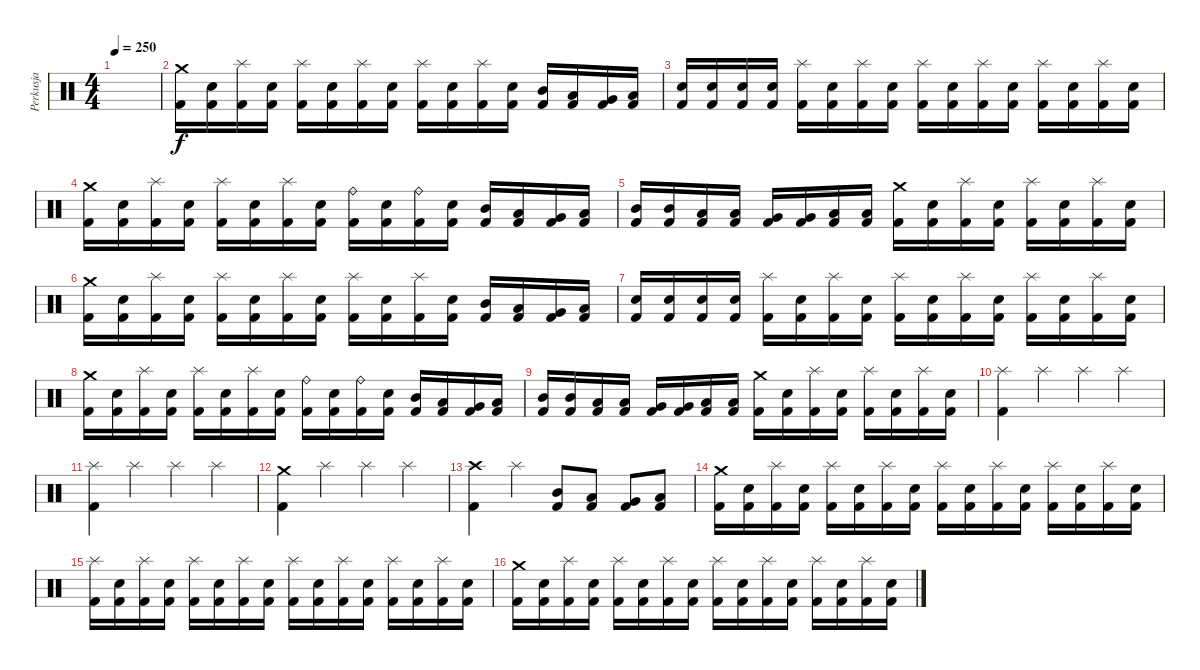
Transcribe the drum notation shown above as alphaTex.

\track ("Perkusja" "Perkusja") {instrument percussion}
\staff {score}
\articulation defaults
\ts (4 4)
\tempo 250
\clef neutral
\ks c
|
("Crash medium (hit)" "Kick (hit) 2").16 ("Snare (hit) 2" "Kick (hit) 2").16 ("Splash (hit)" "Kick (hit) 2").16 ("Snare (hit) 2" "Kick (hit) 2").16 ("Splash (hit)" "Kick (hit) 2").16 ("Snare (hit) 2" "Kick (hit) 2").16 ("Splash (hit)" "Kick (hit) 2").16 ("Snare (hit) 2" "Kick (hit) 2").16 ("Splash (hit)" "Kick (hit) 2").16 ("Snare (hit) 2" "Kick (hit) 2").16 ("Splash (hit)" "Kick (hit) 2").16 ("Snare (hit) 2" "Kick (hit) 2").16 ("Mid Tom (hit)" "Kick (hit) 2").16 ("Low Tom (hit)" "Kick (hit) 2").16 ("Very Low Tom (hit)" "Kick (hit) 2").16 ("Low Floor Tom (hit)" "Kick (hit) 2").16 |
("Electric Snare (hit)" "Kick (hit) 2").16 ("Electric Snare (hit)" "Kick (hit) 2").16 ("Electric Snare (hit)" "Kick (hit) 2").16 ("Electric Snare (hit)" "Kick (hit) 2").16 ("Splash (hit)" "Kick (hit) 2").16 ("Snare (hit) 2" "Kick (hit) 2").16 ("Splash (hit)" "Kick (hit) 2").16 ("Snare (hit) 2" "Kick (hit) 2").16 ("Splash (hit)" "Kick (hit) 2").16 ("Snare (hit) 2" "Kick (hit) 2").16 ("Splash (hit)" "Kick (hit) 2").16 ("Snare (hit) 2" "Kick (hit) 2").16 ("Splash (hit)" "Kick (hit) 2").16 ("Snare (hit) 2" "Kick (hit) 2").16 ("Splash (hit)" "Kick (hit) 2").16 ("Snare (hit) 2" "Kick (hit) 2").16 |
("Crash medium (hit)" "Kick (hit) 2").16 ("Snare (hit) 2" "Kick (hit) 2").16 ("Splash (hit)" "Kick (hit) 2").16 ("Snare (hit) 2" "Kick (hit) 2").16 ("Splash (hit)" "Kick (hit) 2").16 ("Snare (hit) 2" "Kick (hit) 2").16 ("Splash (hit)" "Kick (hit) 2").16 ("Snare (hit) 2" "Kick (hit) 2").16 ("Ride (bell)" "Kick (hit) 2").16 ("Snare (hit) 2" "Kick (hit) 2").16 ("Ride (bell)" "Kick (hit) 2").16 ("Snare (hit) 2" "Kick (hit) 2").16 ("Mid Tom (hit)" "Kick (hit) 2").16 ("Low Tom (hit)" "Kick (hit) 2").16 ("Very Low Tom (hit)" "Kick (hit) 2").16 ("Low Floor Tom (hit)" "Kick (hit) 2").16 |
("Mid Tom (hit)" "Kick (hit) 2").16 ("Mid Tom (hit)" "Kick (hit) 2").16 ("Low Tom (hit)" "Kick (hit) 2").16 ("Low Tom (hit)" "Kick (hit) 2").16 ("Very Low Tom (hit)" "Kick (hit) 2").16 ("Very Low Tom (hit)" "Kick (hit) 2").16 ("Low Floor Tom (hit)" "Kick (hit) 2").16 ("Low Floor Tom (hit)" "Kick (hit) 2").16 ("Crash medium (hit)" "Kick (hit) 2").16 ("Snare (hit) 2" "Kick (hit) 2").16 ("Splash (hit)" "Kick (hit) 2").16 ("Snare (hit) 2" "Kick (hit) 2").16 ("Splash (hit)" "Kick (hit) 2").16 ("Snare (hit) 2" "Kick (hit) 2").16 ("Splash (hit)" "Kick (hit) 2").16 ("Snare (hit) 2" "Kick (hit) 2").16 |
("Crash medium (hit)" "Kick (hit) 2").16 ("Snare (hit) 2" "Kick (hit) 2").16 ("Splash (hit)" "Kick (hit) 2").16 ("Snare (hit) 2" "Kick (hit) 2").16 ("Splash (hit)" "Kick (hit) 2").16 ("Snare (hit) 2" "Kick (hit) 2").16 ("Splash (hit)" "Kick (hit) 2").16 ("Snare (hit) 2" "Kick (hit) 2").16 ("Splash (hit)" "Kick (hit) 2").16 ("Snare (hit) 2" "Kick (hit) 2").16 ("Splash (hit)" "Kick (hit) 2").16 ("Snare (hit) 2" "Kick (hit) 2").16 ("Mid Tom (hit)" "Kick (hit) 2").16 ("Low Tom (hit)" "Kick (hit) 2").16 ("Very Low Tom (hit)" "Kick (hit) 2").16 ("Low Floor Tom (hit)" "Kick (hit) 2").16 |
("Electric Snare (hit)" "Kick (hit) 2").16 ("Electric Snare (hit)" "Kick (hit) 2").16 ("Electric Snare (hit)" "Kick (hit) 2").16 ("Electric Snare (hit)" "Kick (hit) 2").16 ("Splash (hit)" "Kick (hit) 2").16 ("Snare (hit) 2" "Kick (hit) 2").16 ("Splash (hit)" "Kick (hit) 2").16 ("Snare (hit) 2" "Kick (hit) 2").16 ("Splash (hit)" "Kick (hit) 2").16 ("Snare (hit) 2" "Kick (hit) 2").16 ("Splash (hit)" "Kick (hit) 2").16 ("Snare (hit) 2" "Kick (hit) 2").16 ("Splash (hit)" "Kick (hit) 2").16 ("Snare (hit) 2" "Kick (hit) 2").16 ("Splash (hit)" "Kick (hit) 2").16 ("Snare (hit) 2" "Kick (hit) 2").16 |
("Crash medium (hit)" "Kick (hit) 2").16 ("Snare (hit) 2" "Kick (hit) 2").16 ("Splash (hit)" "Kick (hit) 2").16 ("Snare (hit) 2" "Kick (hit) 2").16 ("Splash (hit)" "Kick (hit) 2").16 ("Snare (hit) 2" "Kick (hit) 2").16 ("Splash (hit)" "Kick (hit) 2").16 ("Snare (hit) 2" "Kick (hit) 2").16 ("Ride (bell)" "Kick (hit) 2").16 ("Snare (hit) 2" "Kick (hit) 2").16 ("Ride (bell)" "Kick (hit) 2").16 ("Snare (hit) 2" "Kick (hit) 2").16 ("Mid Tom (hit)" "Kick (hit) 2").16 ("Low Tom (hit)" "Kick (hit) 2").16 ("Very Low Tom (hit)" "Kick (hit) 2").16 ("Low Floor Tom (hit)" "Kick (hit) 2").16 |
("Mid Tom (hit)" "Kick (hit) 2").16 ("Mid Tom (hit)" "Kick (hit) 2").16 ("Low Tom (hit)" "Kick (hit) 2").16 ("Low Tom (hit)" "Kick (hit) 2").16 ("Very Low Tom (hit)" "Kick (hit) 2").16 ("Very Low Tom (hit)" "Kick (hit) 2").16 ("Low Floor Tom (hit)" "Kick (hit) 2").16 ("Low Floor Tom (hit)" "Kick (hit) 2").16 ("Crash medium (hit)" "Kick (hit) 2").16 ("Snare (hit) 2" "Kick (hit) 2").16 ("Splash (hit)" "Kick (hit) 2").16 ("Snare (hit) 2" "Kick (hit) 2").16 ("Splash (hit)" "Kick (hit) 2").16 ("Snare (hit) 2" "Kick (hit) 2").16 ("Splash (hit)" "Kick (hit) 2").16 ("Snare (hit) 2" "Kick (hit) 2").16 |
("Splash (hit)" "Kick (hit) 2").4 "Splash (hit)".4 "Splash (hit)".4 "Splash (hit)".4 |
("Splash (hit)" "Kick (hit) 2").4 "Splash (hit)".4 "Splash (hit)".4 "Splash (hit)".4 |
("Crash medium (hit)" "Kick (hit) 2").4 "Splash (hit)".4 "Splash (hit)".4 "Splash (hit)".4 |
("Crash high (hit)" "Kick (hit) 2").4 "Splash (hit)".4 ("Mid Tom (hit)" "Kick (hit) 2").8 ("Low Tom (hit)" "Kick (hit) 2").8 ("Very Low Tom (hit)" "Kick (hit) 2").8 ("Low Floor Tom (hit)" "Kick (hit) 2").8 |
("Crash medium (hit)" "Kick (hit) 2").16 ("Snare (hit) 2" "Kick (hit) 2").16 ("Splash (hit)" "Kick (hit) 2").16 ("Snare (hit) 2" "Kick (hit) 2").16 ("Splash (hit)" "Kick (hit) 2").16 ("Snare (hit) 2" "Kick (hit) 2").16 ("Splash (hit)" "Kick (hit) 2").16 ("Snare (hit) 2" "Kick (hit) 2").16 ("Splash (hit)" "Kick (hit) 2").16 ("Snare (hit) 2" "Kick (hit) 2").16 ("Splash (hit)" "Kick (hit) 2").16 ("Snare (hit) 2" "Kick (hit) 2").16 ("Splash (hit)" "Kick (hit) 2").16 ("Snare (hit) 2" "Kick (hit) 2").16 ("Splash (hit)" "Kick (hit) 2").16 ("Snare (hit) 2" "Kick (hit) 2").16 |
("Splash (hit)" "Kick (hit) 2").16 ("Snare (hit) 2" "Kick (hit) 2").16 ("Splash (hit)" "Kick (hit) 2").16 ("Snare (hit) 2" "Kick (hit) 2").16 ("Splash (hit)" "Kick (hit) 2").16 ("Snare (hit) 2" "Kick (hit) 2").16 ("Splash (hit)" "Kick (hit) 2").16 ("Snare (hit) 2" "Kick (hit) 2").16 ("Splash (hit)" "Kick (hit) 2").16 ("Snare (hit) 2" "Kick (hit) 2").16 ("Splash (hit)" "Kick (hit) 2").16 ("Snare (hit) 2" "Kick (hit) 2").16 ("Splash (hit)" "Kick (hit) 2").16 ("Snare (hit) 2" "Kick (hit) 2").16 ("Splash (hit)" "Kick (hit) 2").16 ("Snare (hit) 2" "Kick (hit) 2").16 |
("Crash medium (hit)" "Kick (hit) 2").16 ("Snare (hit) 2" "Kick (hit) 2").16 ("Splash (hit)" "Kick (hit) 2").16 ("Snare (hit) 2" "Kick (hit) 2").16 ("Splash (hit)" "Kick (hit) 2").16 ("Snare (hit) 2" "Kick (hit) 2").16 ("Splash (hit)" "Kick (hit) 2").16 ("Snare (hit) 2" "Kick (hit) 2").16 ("Splash (hit)" "Kick (hit) 2").16 ("Snare (hit) 2" "Kick (hit) 2").16 ("Splash (hit)" "Kick (hit) 2").16 ("Snare (hit) 2" "Kick (hit) 2").16 ("Splash (hit)" "Kick (hit) 2").16 ("Snare (hit) 2" "Kick (hit) 2").16 ("Splash (hit)" "Kick (hit) 2").16 ("Snare (hit) 2" "Kick (hit) 2").16
